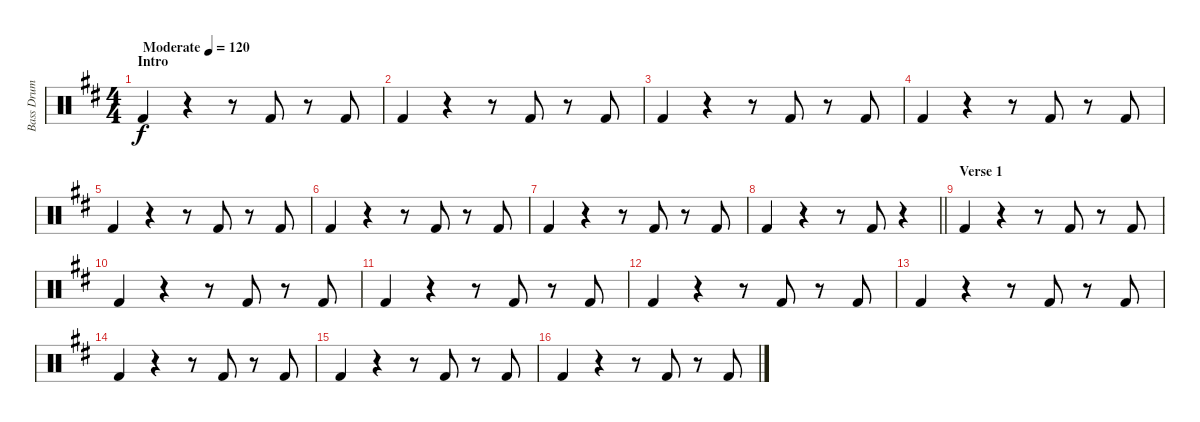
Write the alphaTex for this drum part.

\track ("Bass Drum" "Bass Drum") {instrument percussion}
\staff {score}
\articulation defaults
\ts (4 4)
\section ("" "Intro")
\tempo (120 "Moderate")
\clef neutral
\ks d "Kick (hit) 2".4{dy f}
r.4 r.8 "Kick (hit) 2".8 r.8 "Kick (hit) 2".8 |
"Kick (hit) 2".4 r.4 r.8 "Kick (hit) 2".8 r.8 "Kick (hit) 2".8 |
"Kick (hit) 2".4 r.4 r.8 "Kick (hit) 2".8 r.8 "Kick (hit) 2".8 |
"Kick (hit) 2".4 r.4 r.8 "Kick (hit) 2".8 r.8 "Kick (hit) 2".8 |
"Kick (hit) 2".4 r.4 r.8 "Kick (hit) 2".8 r.8 "Kick (hit) 2".8 |
"Kick (hit) 2".4 r.4 r.8 "Kick (hit) 2".8 r.8 "Kick (hit) 2".8 |
"Kick (hit) 2".4 r.4 r.8 "Kick (hit) 2".8 r.8 "Kick (hit) 2".8 |
\barLineRight lightlight "Kick (hit) 2".4
r.4 r.8 "Kick (hit) 2".8 r.4 |
\section ("" "Verse 1")
"Kick (hit) 2".4 r.4 r.8 "Kick (hit) 2".8 r.8 "Kick (hit) 2".8 |
"Kick (hit) 2".4 r.4 r.8 "Kick (hit) 2".8 r.8 "Kick (hit) 2".8 |
"Kick (hit) 2".4 r.4 r.8 "Kick (hit) 2".8 r.8 "Kick (hit) 2".8 |
"Kick (hit) 2".4 r.4 r.8 "Kick (hit) 2".8 r.8 "Kick (hit) 2".8 |
"Kick (hit) 2".4 r.4 r.8 "Kick (hit) 2".8 r.8 "Kick (hit) 2".8 |
"Kick (hit) 2".4 r.4 r.8 "Kick (hit) 2".8 r.8 "Kick (hit) 2".8 |
"Kick (hit) 2".4 r.4 r.8 "Kick (hit) 2".8 r.8 "Kick (hit) 2".8 |
"Kick (hit) 2".4 r.4 r.8 "Kick (hit) 2".8 r.8 "Kick (hit) 2".8
